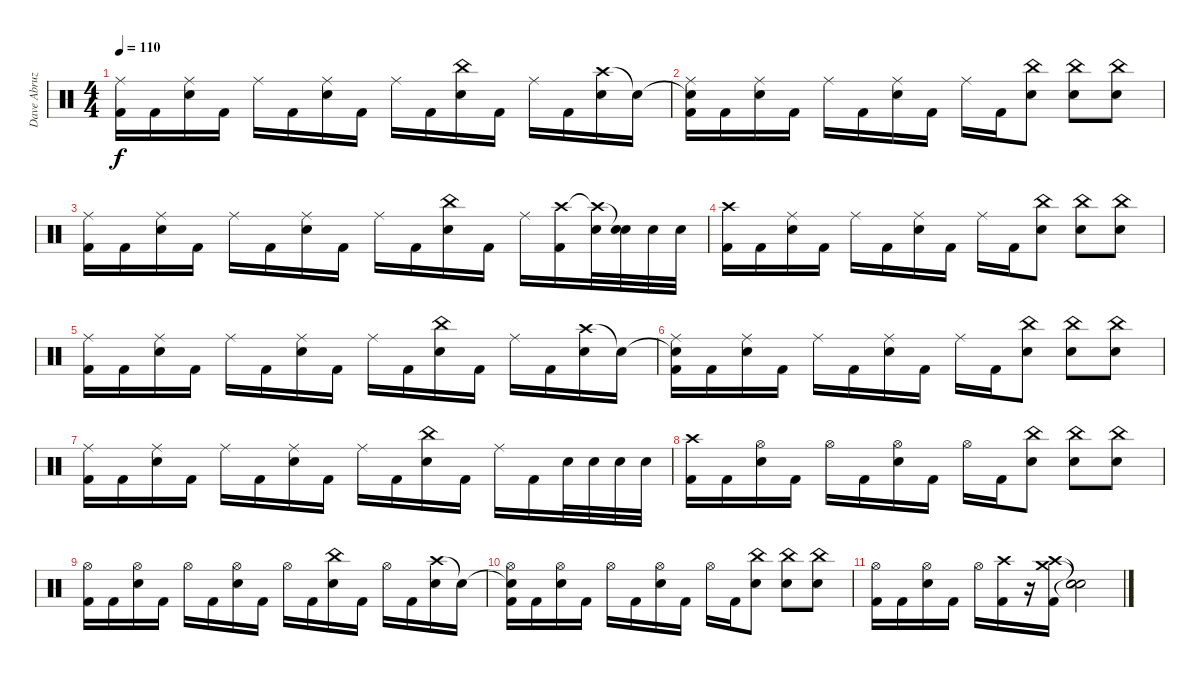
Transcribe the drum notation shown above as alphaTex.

\track ("Dave Abruzzese" "Dave Abruz") {instrument percussion}
\staff {score}
\articulation defaults
\ts (4 4)
\tempo 110
\clef neutral
\ks c
("Ride (middle)" "Kick (hit) 2").16{dy f} "Kick (hit) 2".16 ("Ride (middle)" "Electric Snare (hit)").16 "Kick (hit) 2".16 "Ride (middle)".16 "Kick (hit) 2".16 ("Ride (middle)" "Electric Snare (hit)").16 "Kick (hit) 2".16 "Ride (middle)".16 "Kick (hit) 2".16 ("China (hit)" "Electric Snare (hit)").16 "Kick (hit) 2".16 "Ride (middle)".16 "Kick (hit) 2".16 ("Crash high (hit)" "Electric Snare (hit)").16 "Snare (hit)"{t}.16 |
("Snare (hit)"{t} "Ride (middle)" "Kick (hit) 2").16 "Kick (hit) 2".16 ("Ride (middle)" "Electric Snare (hit)").16 "Kick (hit) 2".16 "Ride (middle)".16 "Kick (hit) 2".16 ("Ride (middle)" "Electric Snare (hit)").16 "Kick (hit) 2".16 "Ride (middle)".16 "Kick (hit) 2".16 ("China (hit)" "Electric Snare (hit)").8 ("China (hit)" "Electric Snare (hit)").8 ("China (hit)" "Electric Snare (hit)").8 |
("Ride (middle)" "Kick (hit) 2").16 "Kick (hit) 2".16 ("Ride (middle)" "Electric Snare (hit)").16 "Kick (hit) 2".16 "Ride (middle)".16 "Kick (hit) 2".16 ("Ride (middle)" "Electric Snare (hit)").16 "Kick (hit) 2".16 "Ride (middle)".16 "Kick (hit) 2".16 ("China (hit)" "Electric Snare (hit)").16 "Kick (hit) 2".16 "Ride (middle)".16 ("Crash high (hit)" "Kick (hit) 2").16 ("Crash high (hit)"{t} "Electric Snare (hit)").32 ("Snare (hit)"{t} "Electric Snare (hit)").32 "Electric Snare (hit)".32 "Electric Snare (hit)".32 |
("Crash high (hit)" "Kick (hit) 2").16 "Kick (hit) 2".16 ("Ride (middle)" "Electric Snare (hit)").16 "Kick (hit) 2".16 "Ride (middle)".16 "Kick (hit) 2".16 ("Ride (middle)" "Electric Snare (hit)").16 "Kick (hit) 2".16 "Ride (middle)".16 "Kick (hit) 2".16 ("China (hit)" "Electric Snare (hit)").8 ("China (hit)" "Electric Snare (hit)").8 ("China (hit)" "Electric Snare (hit)").8 |
("Ride (middle)" "Kick (hit) 2").16 "Kick (hit) 2".16 ("Ride (middle)" "Electric Snare (hit)").16 "Kick (hit) 2".16 "Ride (middle)".16 "Kick (hit) 2".16 ("Ride (middle)" "Electric Snare (hit)").16 "Kick (hit) 2".16 "Ride (middle)".16 "Kick (hit) 2".16 ("China (hit)" "Electric Snare (hit)").16 "Kick (hit) 2".16 "Ride (middle)".16 "Kick (hit) 2".16 ("Crash high (hit)" "Electric Snare (hit)").16 "Snare (hit)"{t}.16 |
("Snare (hit)"{t} "Ride (middle)" "Kick (hit) 2").16 "Kick (hit) 2".16 ("Ride (middle)" "Electric Snare (hit)").16 "Kick (hit) 2".16 "Ride (middle)".16 "Kick (hit) 2".16 ("Ride (middle)" "Electric Snare (hit)").16 "Kick (hit) 2".16 "Ride (middle)".16 "Kick (hit) 2".16 ("China (hit)" "Electric Snare (hit)").8 ("China (hit)" "Electric Snare (hit)").8 ("China (hit)" "Electric Snare (hit)").8 |
("Ride (middle)" "Kick (hit) 2").16 "Kick (hit) 2".16 ("Ride (middle)" "Electric Snare (hit)").16 "Kick (hit) 2".16 "Ride (middle)".16 "Kick (hit) 2".16 ("Ride (middle)" "Electric Snare (hit)").16 "Kick (hit) 2".16 "Ride (middle)".16 "Kick (hit) 2".16 ("China (hit)" "Electric Snare (hit)").16 "Kick (hit) 2".16 "Ride (middle)".16 "Kick (hit) 2".16 "Electric Snare (hit)".32 "Electric Snare (hit)".32 "Electric Snare (hit)".32 "Electric Snare (hit)".32 |
("Crash high (hit)" "Kick (hit) 2").16 "Kick (hit) 2".16 ("Hi-Hat (open)" "Electric Snare (hit)").16 "Kick (hit) 2".16 "Hi-Hat (open)".16 "Kick (hit) 2".16 ("Hi-Hat (open)" "Electric Snare (hit)").16 "Kick (hit) 2".16 "Hi-Hat (open)".16 "Kick (hit) 2".16 ("China (hit)" "Electric Snare (hit)").8 ("China (hit)" "Electric Snare (hit)").8 ("China (hit)" "Electric Snare (hit)").8 |
("Hi-Hat (open)" "Kick (hit) 2").16 "Kick (hit) 2".16 ("Hi-Hat (open)" "Electric Snare (hit)").16 "Kick (hit) 2".16 "Hi-Hat (open)".16 "Kick (hit) 2".16 ("Hi-Hat (open)" "Electric Snare (hit)").16 "Kick (hit) 2".16 "Hi-Hat (open)".16 "Kick (hit) 2".16 ("China (hit)" "Electric Snare (hit)").16 "Kick (hit) 2".16 "Hi-Hat (open)".16 "Kick (hit) 2".16 ("Crash high (hit)" "Electric Snare (hit)").16 "Snare (hit)"{t}.16 |
("Snare (hit)"{t} "Hi-Hat (open)" "Kick (hit) 2").16 "Kick (hit) 2".16 ("Hi-Hat (open)" "Electric Snare (hit)").16 "Kick (hit) 2".16 "Hi-Hat (open)".16 "Kick (hit) 2".16 ("Hi-Hat (open)" "Electric Snare (hit)").16 "Kick (hit) 2".16 "Hi-Hat (open)".16 "Kick (hit) 2".16 ("China (hit)" "Electric Snare (hit)").8 ("China (hit)" "Electric Snare (hit)").8 ("China (hit)" "Electric Snare (hit)").8 |
("Hi-Hat (open)" "Kick (hit) 2").16 "Kick (hit) 2".16 ("Hi-Hat (open)" "Electric Snare (hit)").16 "Kick (hit) 2".16 "Hi-Hat (open)".16 ("Crash high (hit)" "Kick (hit) 2").16 r.16 ("Crash medium (hit)" "Crash high (hit)" "Kick (hit) 2").16 ("Snare (hit)"{t} "Snare (hit)"{t} "Snare (hit)"{t}).2
